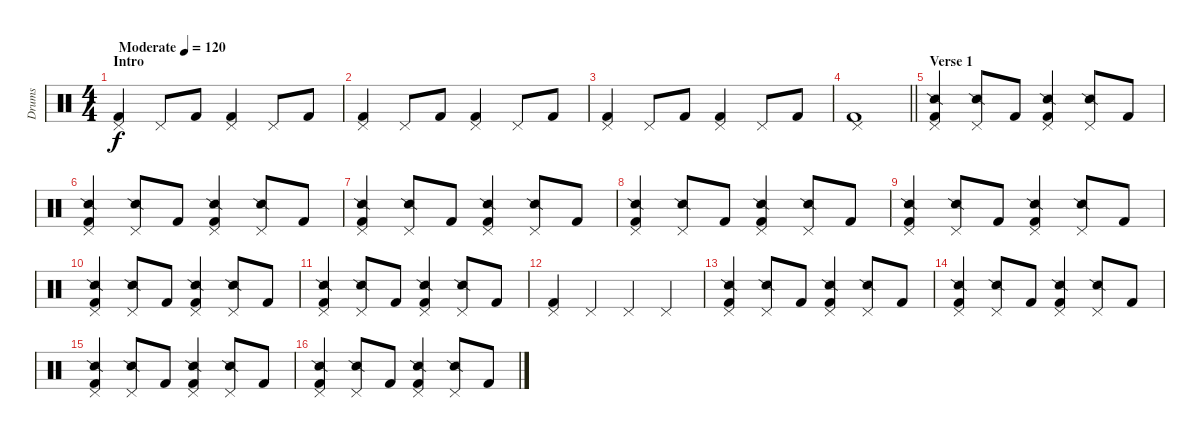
\track ("Drums" "Drums") {instrument percussion}
\staff {score}
\articulation defaults
\ts (4 4)
\section ("" "Intro")
\tempo (120 "Moderate")
\clef neutral
\ks c
("Pedal Hi-Hat (hit)" "Kick (hit) 2").4{dy f} "Pedal Hi-Hat (hit)".8 "Kick (hit) 2".8 ("Pedal Hi-Hat (hit)" "Kick (hit) 2").4 "Pedal Hi-Hat (hit)".8 "Kick (hit) 2".8 |
("Pedal Hi-Hat (hit)" "Kick (hit) 2").4 "Pedal Hi-Hat (hit)".8 "Kick (hit) 2".8 ("Pedal Hi-Hat (hit)" "Kick (hit) 2").4 "Pedal Hi-Hat (hit)".8 "Kick (hit) 2".8 |
("Pedal Hi-Hat (hit)" "Kick (hit) 2").4 "Pedal Hi-Hat (hit)".8 "Kick (hit) 2".8 ("Pedal Hi-Hat (hit)" "Kick (hit) 2").4 "Pedal Hi-Hat (hit)".8 "Kick (hit) 2".8 |
\barLineRight lightlight
("Pedal Hi-Hat (hit)" "Kick (hit) 2").1 |
\section ("" "Verse 1")
("Pedal Hi-Hat (hit)" "Snare (side stick) 2" "Kick (hit) 2").4 ("Pedal Hi-Hat (hit)" "Snare (side stick) 2").8 "Kick (hit) 2".8 ("Pedal Hi-Hat (hit)" "Snare (side stick) 2" "Kick (hit) 2").4 ("Pedal Hi-Hat (hit)" "Snare (side stick) 2").8 "Kick (hit) 2".8 |
("Pedal Hi-Hat (hit)" "Snare (side stick) 2" "Kick (hit) 2").4 ("Pedal Hi-Hat (hit)" "Snare (side stick) 2").8 "Kick (hit) 2".8 ("Pedal Hi-Hat (hit)" "Snare (side stick) 2" "Kick (hit) 2").4 ("Pedal Hi-Hat (hit)" "Snare (side stick) 2").8 "Kick (hit) 2".8 |
("Pedal Hi-Hat (hit)" "Snare (side stick) 2" "Kick (hit) 2").4 ("Pedal Hi-Hat (hit)" "Snare (side stick) 2").8 "Kick (hit) 2".8 ("Pedal Hi-Hat (hit)" "Snare (side stick) 2" "Kick (hit) 2").4 ("Pedal Hi-Hat (hit)" "Snare (side stick) 2").8 "Kick (hit) 2".8 |
("Pedal Hi-Hat (hit)" "Snare (side stick) 2" "Kick (hit) 2").4 ("Pedal Hi-Hat (hit)" "Snare (side stick) 2").8 "Kick (hit) 2".8 ("Pedal Hi-Hat (hit)" "Snare (side stick) 2" "Kick (hit) 2").4 ("Pedal Hi-Hat (hit)" "Snare (side stick) 2").8 "Kick (hit) 2".8 |
("Pedal Hi-Hat (hit)" "Snare (side stick) 2" "Kick (hit) 2").4 ("Pedal Hi-Hat (hit)" "Snare (side stick) 2").8 "Kick (hit) 2".8 ("Pedal Hi-Hat (hit)" "Snare (side stick) 2" "Kick (hit) 2").4 ("Pedal Hi-Hat (hit)" "Snare (side stick) 2").8 "Kick (hit) 2".8 |
("Pedal Hi-Hat (hit)" "Snare (side stick) 2" "Kick (hit) 2").4 ("Pedal Hi-Hat (hit)" "Snare (side stick) 2").8 "Kick (hit) 2".8 ("Pedal Hi-Hat (hit)" "Snare (side stick) 2" "Kick (hit) 2").4 ("Pedal Hi-Hat (hit)" "Snare (side stick) 2").8 "Kick (hit) 2".8 |
("Pedal Hi-Hat (hit)" "Snare (side stick) 2" "Kick (hit) 2").4 ("Pedal Hi-Hat (hit)" "Snare (side stick) 2").8 "Kick (hit) 2".8 ("Pedal Hi-Hat (hit)" "Snare (side stick) 2" "Kick (hit) 2").4 ("Pedal Hi-Hat (hit)" "Snare (side stick) 2").8 "Kick (hit) 2".8 |
("Pedal Hi-Hat (hit)" "Kick (hit) 2").4 "Pedal Hi-Hat (hit)".4 "Pedal Hi-Hat (hit)".4 "Pedal Hi-Hat (hit)".4 |
("Pedal Hi-Hat (hit)" "Snare (side stick) 2" "Kick (hit) 2").4 ("Pedal Hi-Hat (hit)" "Snare (side stick) 2").8 "Kick (hit) 2".8 ("Pedal Hi-Hat (hit)" "Snare (side stick) 2" "Kick (hit) 2").4 ("Pedal Hi-Hat (hit)" "Snare (side stick) 2").8 "Kick (hit) 2".8 |
("Pedal Hi-Hat (hit)" "Snare (side stick) 2" "Kick (hit) 2").4 ("Pedal Hi-Hat (hit)" "Snare (side stick) 2").8 "Kick (hit) 2".8 ("Pedal Hi-Hat (hit)" "Snare (side stick) 2" "Kick (hit) 2").4 ("Pedal Hi-Hat (hit)" "Snare (side stick) 2").8 "Kick (hit) 2".8 |
("Pedal Hi-Hat (hit)" "Snare (side stick) 2" "Kick (hit) 2").4 ("Pedal Hi-Hat (hit)" "Snare (side stick) 2").8 "Kick (hit) 2".8 ("Pedal Hi-Hat (hit)" "Snare (side stick) 2" "Kick (hit) 2").4 ("Pedal Hi-Hat (hit)" "Snare (side stick) 2").8 "Kick (hit) 2".8 |
("Pedal Hi-Hat (hit)" "Snare (side stick) 2" "Kick (hit) 2").4 ("Pedal Hi-Hat (hit)" "Snare (side stick) 2").8 "Kick (hit) 2".8 ("Pedal Hi-Hat (hit)" "Snare (side stick) 2" "Kick (hit) 2").4 ("Pedal Hi-Hat (hit)" "Snare (side stick) 2").8 "Kick (hit) 2".8
